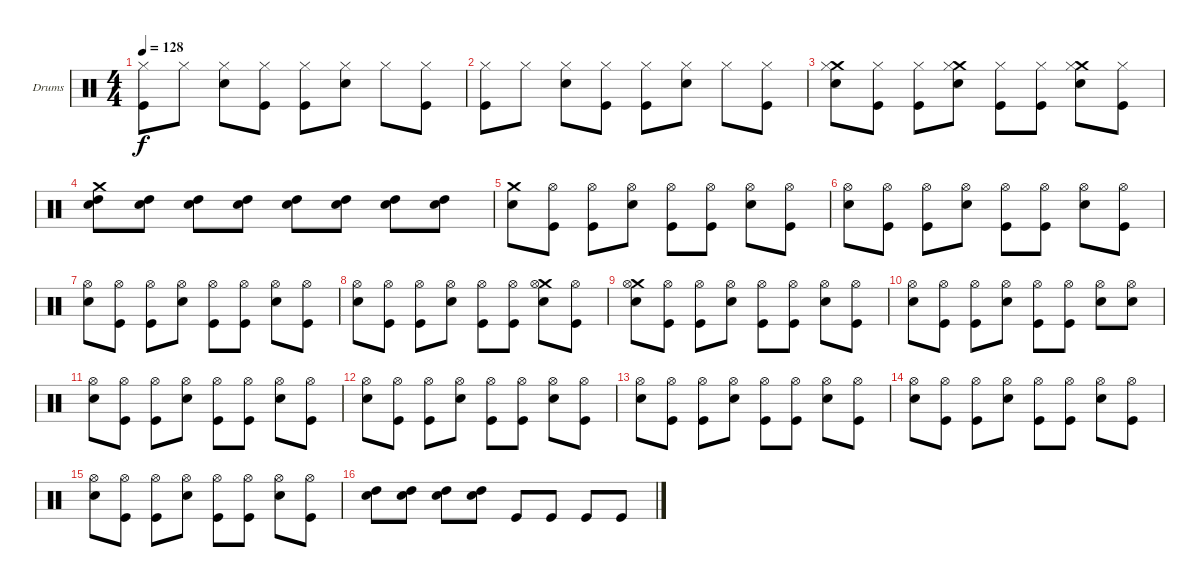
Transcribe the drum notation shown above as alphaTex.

\bracketExtendMode groupsimilarinstruments
\firstSystemTrackNameOrientation horizontal
\otherSystemsTrackNameOrientation horizontal
\track ("Drumkit (Christoph)" "Drums") {instrument percussion}
\staff {score}
\articulation defaults
\ts (4 4)
\tempo 128
\clef neutral
\ks c
("Kick (hit)" "Hi-Hat (closed)").8{dy f} "Hi-Hat (closed)".8 ("Snare (hit) 2" "Hi-Hat (closed)").8 ("Kick (hit)" "Hi-Hat (closed)").8 ("Kick (hit)" "Hi-Hat (closed)").8 ("Snare (hit) 2" "Hi-Hat (closed)").8 "Hi-Hat (closed)".8 ("Kick (hit)" "Hi-Hat (closed)").8 |
("Kick (hit)" "Hi-Hat (closed)").8 "Hi-Hat (closed)".8 ("Snare (hit) 2" "Hi-Hat (closed)").8 ("Kick (hit)" "Hi-Hat (closed)").8 ("Kick (hit)" "Hi-Hat (closed)").8 ("Snare (hit) 2" "Hi-Hat (closed)").8 "Hi-Hat (closed)".8 ("Kick (hit)" "Hi-Hat (closed)").8 |
("Crash medium (hit)" "Snare (hit) 2" "Hi-Hat (closed)").8 ("Kick (hit)" "Hi-Hat (closed)").8 ("Kick (hit)" "Hi-Hat (closed)").8 ("Crash medium (hit)" "Snare (hit) 2" "Hi-Hat (closed)").8 ("Kick (hit)" "Hi-Hat (closed)").8 ("Kick (hit)" "Hi-Hat (closed)").8 ("Crash medium (hit)" "Snare (hit) 2" "Hi-Hat (closed)").8 ("Kick (hit)" "Hi-Hat (closed)").8 |
("Crash medium (hit)" "Snare (hit) 2" "High Tom (hit)").8 ("Snare (hit) 2" "High Tom (hit)").8 ("Snare (hit) 2" "High Tom (hit)").8 ("Snare (hit) 2" "High Tom (hit)").8 ("Snare (hit) 2" "High Tom (hit)").8 ("Snare (hit) 2" "High Tom (hit)").8 ("Snare (hit) 2" "High Tom (hit)").8 ("Snare (hit) 2" "High Tom (hit)").8 |
("Crash medium (hit)" "Snare (hit) 2").8 ("Kick (hit)" "Hi-Hat (open)").8 ("Kick (hit)" "Hi-Hat (open)").8 ("Snare (hit) 2" "Hi-Hat (open)").8 ("Kick (hit)" "Hi-Hat (open)").8 ("Kick (hit)" "Hi-Hat (open)").8 ("Snare (hit) 2" "Hi-Hat (open)").8 ("Kick (hit)" "Hi-Hat (open)").8 |
("Snare (hit) 2" "Hi-Hat (open)").8 ("Kick (hit)" "Hi-Hat (open)").8 ("Kick (hit)" "Hi-Hat (open)").8 ("Snare (hit) 2" "Hi-Hat (open)").8 ("Kick (hit)" "Hi-Hat (open)").8 ("Kick (hit)" "Hi-Hat (open)").8 ("Snare (hit) 2" "Hi-Hat (open)").8 ("Kick (hit)" "Hi-Hat (open)").8 |
("Snare (hit) 2" "Hi-Hat (open)").8 ("Kick (hit)" "Hi-Hat (open)").8 ("Kick (hit)" "Hi-Hat (open)").8 ("Snare (hit) 2" "Hi-Hat (open)").8 ("Kick (hit)" "Hi-Hat (open)").8 ("Kick (hit)" "Hi-Hat (open)").8 ("Snare (hit) 2" "Hi-Hat (open)").8 ("Kick (hit)" "Hi-Hat (open)").8 |
("Snare (hit) 2" "Hi-Hat (open)").8 ("Kick (hit)" "Hi-Hat (open)").8 ("Kick (hit)" "Hi-Hat (open)").8 ("Snare (hit) 2" "Hi-Hat (open)").8 ("Kick (hit)" "Hi-Hat (open)").8 ("Kick (hit)" "Hi-Hat (open)").8 ("Crash medium (hit)" "Snare (hit) 2" "Hi-Hat (open)").8 ("Kick (hit)" "Hi-Hat (open)").8 |
("Crash medium (hit)" "Snare (hit) 2" "Hi-Hat (open)").8 ("Kick (hit)" "Hi-Hat (open)").8 ("Kick (hit)" "Hi-Hat (open)").8 ("Snare (hit) 2" "Hi-Hat (open)").8 ("Kick (hit)" "Hi-Hat (open)").8 ("Kick (hit)" "Hi-Hat (open)").8 ("Snare (hit) 2" "Hi-Hat (open)").8 ("Kick (hit)" "Hi-Hat (open)").8 |
("Snare (hit) 2" "Hi-Hat (open)").8 ("Kick (hit)" "Hi-Hat (open)").8 ("Kick (hit)" "Hi-Hat (open)").8 ("Snare (hit) 2" "Hi-Hat (open)").8 ("Kick (hit)" "Hi-Hat (open)").8 ("Kick (hit)" "Hi-Hat (open)").8 ("Snare (hit) 2" "Hi-Hat (open)").8 ("Snare (hit) 2" "Hi-Hat (open)").8 |
("Snare (hit) 2" "Hi-Hat (open)").8 ("Kick (hit)" "Hi-Hat (open)").8 ("Kick (hit)" "Hi-Hat (open)").8 ("Snare (hit) 2" "Hi-Hat (open)").8 ("Kick (hit)" "Hi-Hat (open)").8 ("Kick (hit)" "Hi-Hat (open)").8 ("Snare (hit) 2" "Hi-Hat (open)").8 ("Kick (hit)" "Hi-Hat (open)").8 |
("Snare (hit) 2" "Hi-Hat (open)").8 ("Kick (hit)" "Hi-Hat (open)").8 ("Kick (hit)" "Hi-Hat (open)").8 ("Snare (hit) 2" "Hi-Hat (open)").8 ("Kick (hit)" "Hi-Hat (open)").8 ("Kick (hit)" "Hi-Hat (open)").8 ("Snare (hit) 2" "Hi-Hat (open)").8 ("Kick (hit)" "Hi-Hat (open)").8 |
("Snare (hit) 2" "Hi-Hat (open)").8 ("Kick (hit)" "Hi-Hat (open)").8 ("Kick (hit)" "Hi-Hat (open)").8 ("Snare (hit) 2" "Hi-Hat (open)").8 ("Kick (hit)" "Hi-Hat (open)").8 ("Kick (hit)" "Hi-Hat (open)").8 ("Snare (hit) 2" "Hi-Hat (open)").8 ("Kick (hit)" "Hi-Hat (open)").8 |
("Snare (hit) 2" "Hi-Hat (open)").8 ("Kick (hit)" "Hi-Hat (open)").8 ("Kick (hit)" "Hi-Hat (open)").8 ("Snare (hit) 2" "Hi-Hat (open)").8 ("Kick (hit)" "Hi-Hat (open)").8 ("Kick (hit)" "Hi-Hat (open)").8 ("Snare (hit) 2" "Hi-Hat (open)").8 ("Kick (hit)" "Hi-Hat (open)").8 |
("Snare (hit) 2" "Hi-Hat (open)").8 ("Kick (hit)" "Hi-Hat (open)").8 ("Kick (hit)" "Hi-Hat (open)").8 ("Snare (hit) 2" "Hi-Hat (open)").8 ("Kick (hit)" "Hi-Hat (open)").8 ("Kick (hit)" "Hi-Hat (open)").8 ("Snare (hit) 2" "Hi-Hat (open)").8 ("Kick (hit)" "Hi-Hat (open)").8 |
("Snare (hit) 2" "High Tom (hit)").8 ("Snare (hit) 2" "High Tom (hit)").8 ("Snare (hit) 2" "High Tom (hit)").8 ("Snare (hit) 2" "High Tom (hit)").8 "Kick (hit)".8 "Kick (hit)".8 "Kick (hit)".8 "Kick (hit)".8
